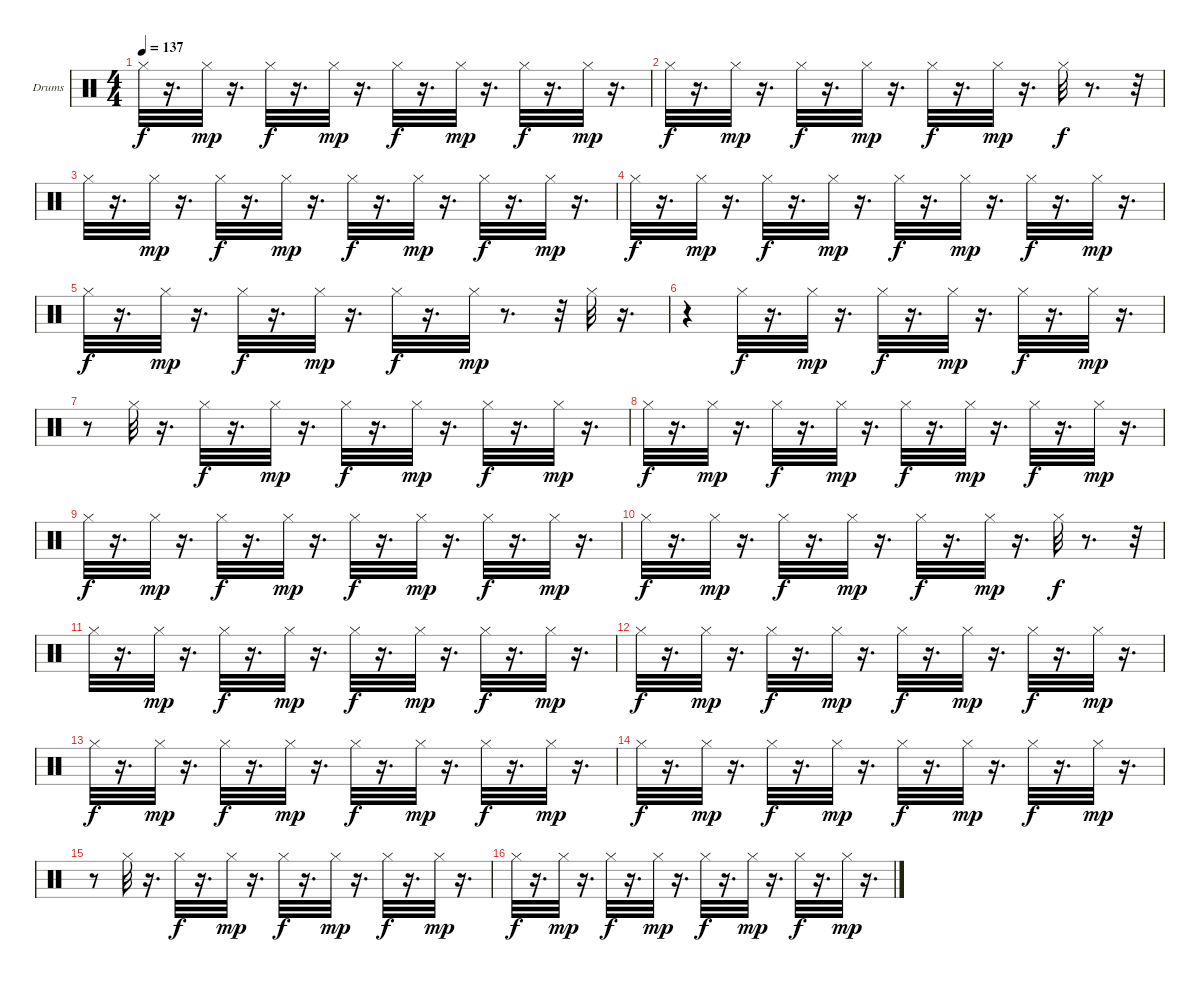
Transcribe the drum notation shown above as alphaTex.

\bracketExtendMode groupsimilarinstruments
\firstSystemTrackNameOrientation horizontal
\otherSystemsTrackNameOrientation horizontal
\track ("Drumkit" "Drums") {instrument percussion}
\staff {score}
\articulation defaults
\ts (4 4)
\tempo 137
\clef neutral
\ks c "Hi-Hat (closed)".32{dy f}
r.16{d} "Hi-Hat (closed)".32{dy mp} r.16{d} "Hi-Hat (closed)".32{dy f} r.16{d} "Hi-Hat (closed)".32{dy mp} r.16{d} "Hi-Hat (closed)".32{dy f} r.16{d} "Hi-Hat (closed)".32{dy mp} r.16{d} "Hi-Hat (closed)".32{dy f} r.16{d} "Hi-Hat (closed)".32{dy mp} r.16{d} |
"Hi-Hat (closed)".32{dy f} r.16{d} "Hi-Hat (closed)".32{dy mp} r.16{d} "Hi-Hat (closed)".32{dy f} r.16{d} "Hi-Hat (closed)".32{dy mp} r.16{d} "Hi-Hat (closed)".32{dy f} r.16{d} "Hi-Hat (closed)".32{dy mp} r.16{d} "Hi-Hat (closed)".32{dy f} r.8{d} r.32 |
"Hi-Hat (closed)".32 r.16{d} "Hi-Hat (closed)".32{dy mp} r.16{d} "Hi-Hat (closed)".32{dy f} r.16{d} "Hi-Hat (closed)".32{dy mp} r.16{d} "Hi-Hat (closed)".32{dy f} r.16{d} "Hi-Hat (closed)".32{dy mp} r.16{d} "Hi-Hat (closed)".32{dy f} r.16{d} "Hi-Hat (closed)".32{dy mp} r.16{d} |
"Hi-Hat (closed)".32{dy f} r.16{d} "Hi-Hat (closed)".32{dy mp} r.16{d} "Hi-Hat (closed)".32{dy f} r.16{d} "Hi-Hat (closed)".32{dy mp} r.16{d} "Hi-Hat (closed)".32{dy f} r.16{d} "Hi-Hat (closed)".32{dy mp} r.16{d} "Hi-Hat (closed)".32{dy f} r.16{d} "Hi-Hat (closed)".32{dy mp} r.16{d} |
"Hi-Hat (closed)".32{dy f} r.16{d} "Hi-Hat (closed)".32{dy mp} r.16{d} "Hi-Hat (closed)".32{dy f} r.16{d} "Hi-Hat (closed)".32{dy mp} r.16{d} "Hi-Hat (closed)".32{dy f} r.16{d} "Hi-Hat (closed)".32{dy mp} r.8{d} r.32 "Hi-Hat (closed)".32 r.16{d} |
r.4 "Hi-Hat (closed)".32{dy f} r.16{d} "Hi-Hat (closed)".32{dy mp} r.16{d} "Hi-Hat (closed)".32{dy f} r.16{d} "Hi-Hat (closed)".32{dy mp} r.16{d} "Hi-Hat (closed)".32{dy f} r.16{d} "Hi-Hat (closed)".32{dy mp} r.16{d} |
r.8 "Hi-Hat (closed)".32 r.16{d} "Hi-Hat (closed)".32{dy f} r.16{d} "Hi-Hat (closed)".32{dy mp} r.16{d} "Hi-Hat (closed)".32{dy f} r.16{d} "Hi-Hat (closed)".32{dy mp} r.16{d} "Hi-Hat (closed)".32{dy f} r.16{d} "Hi-Hat (closed)".32{dy mp} r.16{d} |
"Hi-Hat (closed)".32{dy f} r.16{d} "Hi-Hat (closed)".32{dy mp} r.16{d} "Hi-Hat (closed)".32{dy f} r.16{d} "Hi-Hat (closed)".32{dy mp} r.16{d} "Hi-Hat (closed)".32{dy f} r.16{d} "Hi-Hat (closed)".32{dy mp} r.16{d} "Hi-Hat (closed)".32{dy f} r.16{d} "Hi-Hat (closed)".32{dy mp} r.16{d} |
"Hi-Hat (closed)".32{dy f} r.16{d} "Hi-Hat (closed)".32{dy mp} r.16{d} "Hi-Hat (closed)".32{dy f} r.16{d} "Hi-Hat (closed)".32{dy mp} r.16{d} "Hi-Hat (closed)".32{dy f} r.16{d} "Hi-Hat (closed)".32{dy mp} r.16{d} "Hi-Hat (closed)".32{dy f} r.16{d} "Hi-Hat (closed)".32{dy mp} r.16{d} |
"Hi-Hat (closed)".32{dy f} r.16{d} "Hi-Hat (closed)".32{dy mp} r.16{d} "Hi-Hat (closed)".32{dy f} r.16{d} "Hi-Hat (closed)".32{dy mp} r.16{d} "Hi-Hat (closed)".32{dy f} r.16{d} "Hi-Hat (closed)".32{dy mp} r.16{d} "Hi-Hat (closed)".32{dy f} r.8{d} r.32 |
"Hi-Hat (closed)".32 r.16{d} "Hi-Hat (closed)".32{dy mp} r.16{d} "Hi-Hat (closed)".32{dy f} r.16{d} "Hi-Hat (closed)".32{dy mp} r.16{d} "Hi-Hat (closed)".32{dy f} r.16{d} "Hi-Hat (closed)".32{dy mp} r.16{d} "Hi-Hat (closed)".32{dy f} r.16{d} "Hi-Hat (closed)".32{dy mp} r.16{d} |
"Hi-Hat (closed)".32{dy f} r.16{d} "Hi-Hat (closed)".32{dy mp} r.16{d} "Hi-Hat (closed)".32{dy f} r.16{d} "Hi-Hat (closed)".32{dy mp} r.16{d} "Hi-Hat (closed)".32{dy f} r.16{d} "Hi-Hat (closed)".32{dy mp} r.16{d} "Hi-Hat (closed)".32{dy f} r.16{d} "Hi-Hat (closed)".32{dy mp} r.16{d} |
"Hi-Hat (closed)".32{dy f} r.16{d} "Hi-Hat (closed)".32{dy mp} r.16{d} "Hi-Hat (closed)".32{dy f} r.16{d} "Hi-Hat (closed)".32{dy mp} r.16{d} "Hi-Hat (closed)".32{dy f} r.16{d} "Hi-Hat (closed)".32{dy mp} r.16{d} "Hi-Hat (closed)".32{dy f} r.16{d} "Hi-Hat (closed)".32{dy mp} r.16{d} |
"Hi-Hat (closed)".32{dy f} r.16{d} "Hi-Hat (closed)".32{dy mp} r.16{d} "Hi-Hat (closed)".32{dy f} r.16{d} "Hi-Hat (closed)".32{dy mp} r.16{d} "Hi-Hat (closed)".32{dy f} r.16{d} "Hi-Hat (closed)".32{dy mp} r.16{d} "Hi-Hat (closed)".32{dy f} r.16{d} "Hi-Hat (closed)".32{dy mp} r.16{d} |
r.8 "Hi-Hat (closed)".32 r.16{d} "Hi-Hat (closed)".32{dy f} r.16{d} "Hi-Hat (closed)".32{dy mp} r.16{d} "Hi-Hat (closed)".32{dy f} r.16{d} "Hi-Hat (closed)".32{dy mp} r.16{d} "Hi-Hat (closed)".32{dy f} r.16{d} "Hi-Hat (closed)".32{dy mp} r.16{d} |
"Hi-Hat (closed)".32{dy f} r.16{d} "Hi-Hat (closed)".32{dy mp} r.16{d} "Hi-Hat (closed)".32{dy f} r.16{d} "Hi-Hat (closed)".32{dy mp} r.16{d} "Hi-Hat (closed)".32{dy f} r.16{d} "Hi-Hat (closed)".32{dy mp} r.16{d} "Hi-Hat (closed)".32{dy f} r.16{d} "Hi-Hat (closed)".32{dy mp} r.16{d}
